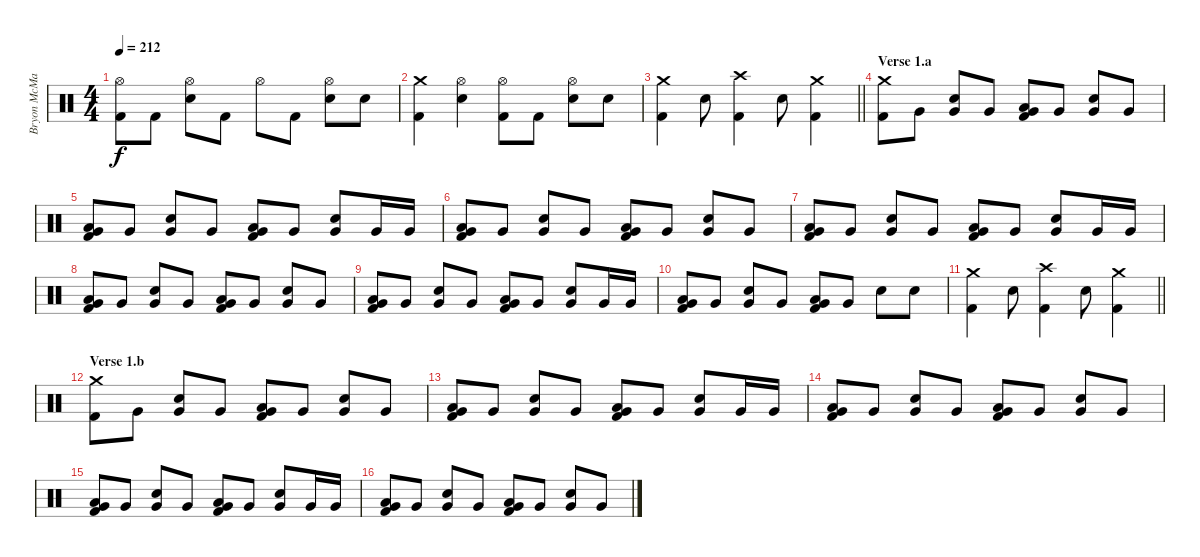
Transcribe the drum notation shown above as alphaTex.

\track ("Bryon McMackin - Drums" "Bryon McMa") {instrument percussion}
\staff {score}
\articulation defaults
\ts (4 4)
\tempo 212
\clef neutral
\ks c
("Hi-Hat (open)" "Kick (hit) 2").8{dy f} "Kick (hit) 2".8 ("Hi-Hat (open)" "Electric Snare (hit)").8 "Kick (hit) 2".8 "Hi-Hat (open)".8 "Kick (hit) 2".8 ("Hi-Hat (open)" "Electric Snare (hit)").8 "Electric Snare (hit)".8 |
("Crash medium (hit)" "Kick (hit) 2").4 ("Hi-Hat (open)" "Electric Snare (hit)").4 ("Hi-Hat (open)" "Kick (hit) 2").8 "Kick (hit) 2".8 ("Hi-Hat (open)" "Electric Snare (hit)").8 "Electric Snare (hit)".8 |
\barLineRight lightlight
("Crash medium (hit)" "Kick (hit) 2").4 "Electric Snare (hit)".8 ("Crash high (hit)" "Kick (hit) 2").4 "Electric Snare (hit)".8 ("Crash medium (hit)" "Kick (hit) 2").4 |
\section ("" "Verse 1.a")
("Crash medium (hit)" "Kick (hit) 2").8 "Very Low Tom (hit)".8 ("Electric Snare (hit)" "Very Low Tom (hit)").8 "Very Low Tom (hit)".8 ("Low Tom (hit)" "Very Low Tom (hit)" "Kick (hit) 2").8 "Very Low Tom (hit)".8 ("Electric Snare (hit)" "Very Low Tom (hit)").8 "Very Low Tom (hit)".8 |
("Low Tom (hit)" "Very Low Tom (hit)" "Kick (hit) 2").8 "Very Low Tom (hit)".8 ("Electric Snare (hit)" "Very Low Tom (hit)").8 "Very Low Tom (hit)".8 ("Low Tom (hit)" "Very Low Tom (hit)" "Kick (hit) 2").8 "Very Low Tom (hit)".8 ("Electric Snare (hit)" "Very Low Tom (hit)").8 "Very Low Tom (hit)".16 "Very Low Tom (hit)".16 |
("Low Tom (hit)" "Very Low Tom (hit)" "Kick (hit) 2").8 "Very Low Tom (hit)".8 ("Electric Snare (hit)" "Very Low Tom (hit)").8 "Very Low Tom (hit)".8 ("Low Tom (hit)" "Very Low Tom (hit)" "Kick (hit) 2").8 "Very Low Tom (hit)".8 ("Electric Snare (hit)" "Very Low Tom (hit)").8 "Very Low Tom (hit)".8 |
("Low Tom (hit)" "Very Low Tom (hit)" "Kick (hit) 2").8 "Very Low Tom (hit)".8 ("Electric Snare (hit)" "Very Low Tom (hit)").8 "Very Low Tom (hit)".8 ("Low Tom (hit)" "Very Low Tom (hit)" "Kick (hit) 2").8 "Very Low Tom (hit)".8 ("Electric Snare (hit)" "Very Low Tom (hit)").8 "Very Low Tom (hit)".16 "Very Low Tom (hit)".16 |
("Low Tom (hit)" "Very Low Tom (hit)" "Kick (hit) 2").8 "Very Low Tom (hit)".8 ("Electric Snare (hit)" "Very Low Tom (hit)").8 "Very Low Tom (hit)".8 ("Low Tom (hit)" "Very Low Tom (hit)" "Kick (hit) 2").8 "Very Low Tom (hit)".8 ("Electric Snare (hit)" "Very Low Tom (hit)").8 "Very Low Tom (hit)".8 |
("Low Tom (hit)" "Very Low Tom (hit)" "Kick (hit) 2").8 "Very Low Tom (hit)".8 ("Electric Snare (hit)" "Very Low Tom (hit)").8 "Very Low Tom (hit)".8 ("Low Tom (hit)" "Very Low Tom (hit)" "Kick (hit) 2").8 "Very Low Tom (hit)".8 ("Electric Snare (hit)" "Very Low Tom (hit)").8 "Very Low Tom (hit)".16 "Very Low Tom (hit)".16 |
("Low Tom (hit)" "Very Low Tom (hit)" "Kick (hit) 2").8 "Very Low Tom (hit)".8 ("Electric Snare (hit)" "Very Low Tom (hit)").8 "Very Low Tom (hit)".8 ("Low Tom (hit)" "Very Low Tom (hit)" "Kick (hit) 2").8 "Very Low Tom (hit)".8 "Electric Snare (hit)".8 "Electric Snare (hit)".8 |
\barLineRight lightlight
("Crash medium (hit)" "Kick (hit) 2").4 "Electric Snare (hit)".8 ("Crash high (hit)" "Kick (hit) 2").4 "Electric Snare (hit)".8 ("Crash medium (hit)" "Kick (hit) 2").4 |
\section ("" "Verse 1.b")
("Crash medium (hit)" "Kick (hit) 2").8 "Very Low Tom (hit)".8 ("Electric Snare (hit)" "Very Low Tom (hit)").8 "Very Low Tom (hit)".8 ("Low Tom (hit)" "Very Low Tom (hit)" "Kick (hit) 2").8 "Very Low Tom (hit)".8 ("Electric Snare (hit)" "Very Low Tom (hit)").8 "Very Low Tom (hit)".8 |
("Low Tom (hit)" "Very Low Tom (hit)" "Kick (hit) 2").8 "Very Low Tom (hit)".8 ("Electric Snare (hit)" "Very Low Tom (hit)").8 "Very Low Tom (hit)".8 ("Low Tom (hit)" "Very Low Tom (hit)" "Kick (hit) 2").8 "Very Low Tom (hit)".8 ("Electric Snare (hit)" "Very Low Tom (hit)").8 "Very Low Tom (hit)".16 "Very Low Tom (hit)".16 |
("Low Tom (hit)" "Very Low Tom (hit)" "Kick (hit) 2").8 "Very Low Tom (hit)".8 ("Electric Snare (hit)" "Very Low Tom (hit)").8 "Very Low Tom (hit)".8 ("Low Tom (hit)" "Very Low Tom (hit)" "Kick (hit) 2").8 "Very Low Tom (hit)".8 ("Electric Snare (hit)" "Very Low Tom (hit)").8 "Very Low Tom (hit)".8 |
("Low Tom (hit)" "Very Low Tom (hit)" "Kick (hit) 2").8 "Very Low Tom (hit)".8 ("Electric Snare (hit)" "Very Low Tom (hit)").8 "Very Low Tom (hit)".8 ("Low Tom (hit)" "Very Low Tom (hit)" "Kick (hit) 2").8 "Very Low Tom (hit)".8 ("Electric Snare (hit)" "Very Low Tom (hit)").8 "Very Low Tom (hit)".16 "Very Low Tom (hit)".16 |
("Low Tom (hit)" "Very Low Tom (hit)" "Kick (hit) 2").8 "Very Low Tom (hit)".8 ("Electric Snare (hit)" "Very Low Tom (hit)").8 "Very Low Tom (hit)".8 ("Low Tom (hit)" "Very Low Tom (hit)" "Kick (hit) 2").8 "Very Low Tom (hit)".8 ("Electric Snare (hit)" "Very Low Tom (hit)").8 "Very Low Tom (hit)".8
